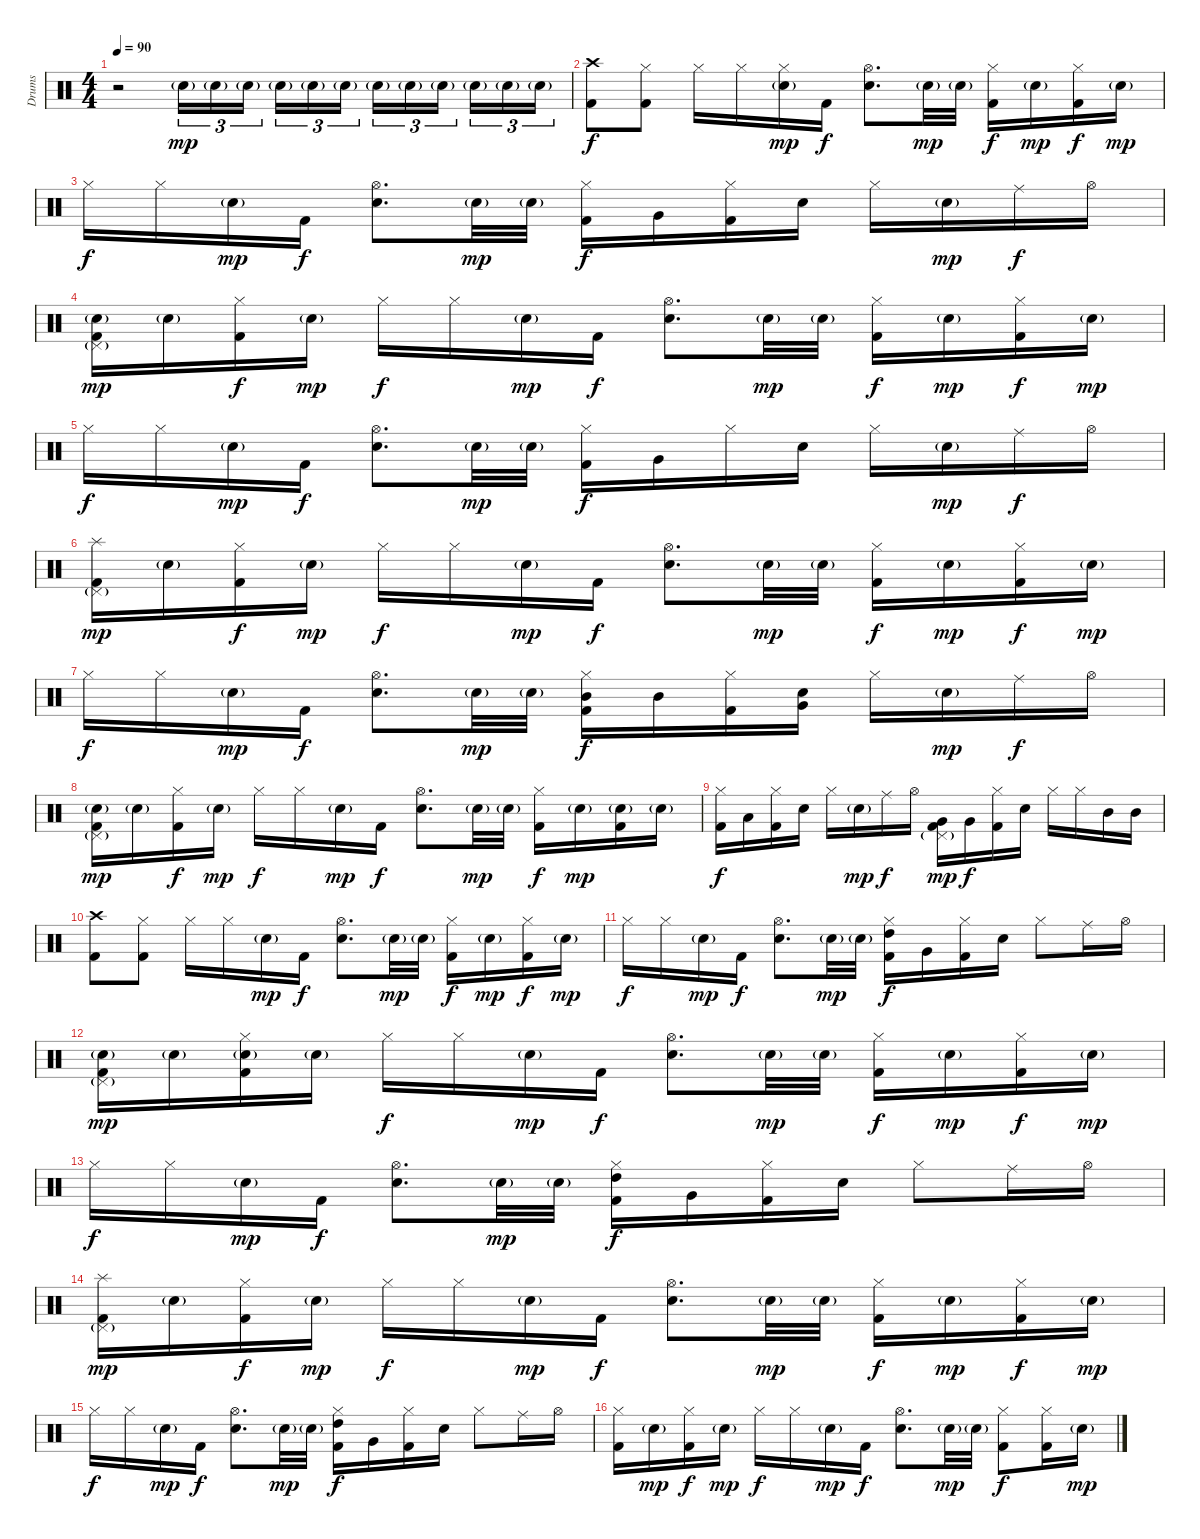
\track ("Drums" "Drums") {instrument percussion}
\staff {score}
\articulation defaults
\ts (4 4)
\tempo 90
\clef neutral
\ks c
r.2{dy f volume 0} "Electric Snare (hit)"{g}.16{tu (3 2) dy mp volume 10} "Electric Snare (hit)"{g}.16{tu (3 2)} "Electric Snare (hit)"{g}.16{tu (3 2) beam splitsecondary} "Electric Snare (hit)"{g}.16{tu (3 2)} "Electric Snare (hit)"{g}.16{tu (3 2)} "Electric Snare (hit)"{g}.16{tu (3 2)} "Electric Snare (hit)"{g}.16{tu (3 2)} "Electric Snare (hit)"{g}.16{tu (3 2)} "Electric Snare (hit)"{g}.16{tu (3 2) beam splitsecondary} "Electric Snare (hit)"{g}.16{tu (3 2)} "Electric Snare (hit)"{g}.16{tu (3 2)} "Electric Snare (hit)"{g}.16{tu (3 2)} |
("Crash high (hit)" "Kick (hit) 2").8{dy f} ("Hi-Hat (closed)" "Kick (hit) 2").8 "Hi-Hat (closed)".16 "Hi-Hat (closed)".16 ("Hi-Hat (closed)" "Electric Snare (hit)"{g}).16{dy mp} "Kick (hit) 2".16{dy f} ("Electric Snare (hit)" "Hi-Hat (open)").8{d} "Electric Snare (hit)"{g}.32{dy mp} "Electric Snare (hit)"{g}.32 ("Hi-Hat (closed)" "Kick (hit) 2").16{dy f} "Electric Snare (hit)"{g}.16{dy mp} ("Hi-Hat (closed)" "Kick (hit) 2").16{dy f} "Electric Snare (hit)"{g}.16{dy mp} |
"Hi-Hat (closed)".16{dy f} "Hi-Hat (closed)".16 "Electric Snare (hit)"{g}.16{dy mp} "Kick (hit) 2".16{dy f} ("Hi-Hat (open)" "Electric Snare (hit)").8{d} "Electric Snare (hit)"{g}.32{dy mp} "Electric Snare (hit)"{g}.32 ("Hi-Hat (closed)" "Kick (hit) 2").16{dy f} "Very Low Tom (hit)".16 ("Hi-Hat (closed)" "Kick (hit) 2").16 "Electric Snare (hit)".16 "Hi-Hat (closed)".16 "Electric Snare (hit)"{g}.16{dy mp} "Ride (middle)".16{dy f} "Hi-Hat (open)".16 |
("Pedal Hi-Hat (hit)"{g} "Electric Snare (hit)"{g} "Kick (hit) 2").16{dy mp} "Electric Snare (hit)"{g}.16 ("Hi-Hat (closed)" "Kick (hit) 2").16{dy f} "Electric Snare (hit)"{g}.16{dy mp} "Hi-Hat (closed)".16{dy f} "Hi-Hat (closed)".16 "Electric Snare (hit)"{g}.16{dy mp} "Kick (hit) 2".16{dy f} ("Electric Snare (hit)" "Hi-Hat (open)").8{d} "Electric Snare (hit)"{g}.32{dy mp} "Electric Snare (hit)"{g}.32 ("Hi-Hat (closed)" "Kick (hit) 2").16{dy f} "Electric Snare (hit)"{g}.16{dy mp} ("Hi-Hat (closed)" "Kick (hit) 2").16{dy f} "Electric Snare (hit)"{g}.16{dy mp} |
"Hi-Hat (closed)".16{dy f} "Hi-Hat (closed)".16 "Electric Snare (hit)"{g}.16{dy mp} "Kick (hit) 2".16{dy f} ("Hi-Hat (open)" "Electric Snare (hit)").8{d} "Electric Snare (hit)"{g}.32{dy mp} "Electric Snare (hit)"{g}.32 ("Hi-Hat (closed)" "Kick (hit) 2").16{dy f} "Very Low Tom (hit)".16 "Hi-Hat (closed)".16 "Electric Snare (hit)".16 "Hi-Hat (closed)".16 "Electric Snare (hit)"{g}.16{dy mp} "Ride (middle)".16{dy f} "Hi-Hat (open)".16 |
("Splash (hit)" "Pedal Hi-Hat (hit)"{g} "Kick (hit) 2").16{dy mp} "Electric Snare (hit)"{g}.16 ("Hi-Hat (closed)" "Kick (hit) 2").16{dy f} "Electric Snare (hit)"{g}.16{dy mp} "Hi-Hat (closed)".16{dy f} "Hi-Hat (closed)".16 "Electric Snare (hit)"{g}.16{dy mp} "Kick (hit) 2".16{dy f} ("Hi-Hat (open)" "Electric Snare (hit)").8{d} "Electric Snare (hit)"{g}.32{dy mp} "Electric Snare (hit)"{g}.32 ("Hi-Hat (closed)" "Kick (hit) 2").16{dy f} "Electric Snare (hit)"{g}.16{dy mp} ("Hi-Hat (closed)" "Kick (hit) 2").16{dy f} "Electric Snare (hit)"{g}.16{dy mp} |
"Hi-Hat (closed)".16{dy f} "Hi-Hat (closed)".16 "Electric Snare (hit)"{g}.16{dy mp} "Kick (hit) 2".16{dy f} ("Hi-Hat (open)" "Electric Snare (hit)").8{d} "Electric Snare (hit)"{g}.32{dy mp} "Electric Snare (hit)"{g}.32 ("Hi-Hat (closed)" "Mid Tom (hit)" "Kick (hit) 2").16{dy f} "Mid Tom (hit)".16 ("Hi-Hat (closed)" "Kick (hit) 2").16 ("Electric Snare (hit)" "Very Low Tom (hit)").16 "Hi-Hat (closed)".16 "Electric Snare (hit)"{g}.16{dy mp} "Ride (middle)".16{dy f} "Hi-Hat (open)".16 |
("Electric Snare (hit)"{g} "Pedal Hi-Hat (hit)"{g} "Kick (hit) 2").16{dy mp} "Electric Snare (hit)"{g}.16 ("Hi-Hat (closed)" "Kick (hit) 2").16{dy f} "Electric Snare (hit)"{g}.16{dy mp} "Hi-Hat (closed)".16{dy f} "Hi-Hat (closed)".16 "Electric Snare (hit)"{g}.16{dy mp} "Kick (hit) 2".16{dy f} ("Hi-Hat (open)" "Electric Snare (hit)").8{d} "Electric Snare (hit)"{g}.32{dy mp} "Electric Snare (hit)"{g}.32 ("Hi-Hat (closed)" "Kick (hit) 2").16{dy f} "Electric Snare (hit)"{g}.16{dy mp} ("Electric Snare (hit)"{g} "Kick (hit) 2").16 "Electric Snare (hit)"{g}.16 |
("Hi-Hat (closed)" "Kick (hit) 2").16{dy f} "Low Tom (hit)".16 ("Hi-Hat (closed)" "Kick (hit) 2").16 "Electric Snare (hit)".16 "Hi-Hat (closed)".16 "Electric Snare (hit)"{g}.16{dy mp} "Ride (middle)".16{dy f} "Hi-Hat (open)".16 ("Pedal Hi-Hat (hit)"{g} "Very Low Tom (hit)" "Kick (hit) 2").16{dy mp} "Very Low Tom (hit)".16{dy f} ("Hi-Hat (closed)" "Kick (hit) 2").16 "Electric Snare (hit)".16 "Hi-Hat (closed)".16 "Hi-Hat (closed)".16 "Mid Tom (hit)".16 "Mid Tom (hit)".16 |
("Crash high (hit)" "Kick (hit) 2").8 ("Hi-Hat (closed)" "Kick (hit) 2").8 "Hi-Hat (closed)".16 "Hi-Hat (closed)".16 "Electric Snare (hit)"{g}.16{dy mp} "Kick (hit) 2".16{dy f} ("Electric Snare (hit)" "Hi-Hat (open)").8{d} "Electric Snare (hit)"{g}.32{dy mp} "Electric Snare (hit)"{g}.32 ("Hi-Hat (closed)" "Kick (hit) 2").16{dy f} "Electric Snare (hit)"{g}.16{dy mp} ("Hi-Hat (closed)" "Kick (hit) 2").16{dy f} "Electric Snare (hit)"{g}.16{dy mp} |
"Hi-Hat (closed)".16{dy f} "Hi-Hat (closed)".16 "Electric Snare (hit)"{g}.16{dy mp} "Kick (hit) 2".16{dy f} ("Hi-Hat (open)" "Electric Snare (hit)").8{d} "Electric Snare (hit)"{g}.32{dy mp} "Electric Snare (hit)"{g}.32 ("Kick (hit) 2" "Hi-Hat (closed)" "High Tom (hit)").16{dy f} "Very Low Tom (hit)".16 ("Hi-Hat (closed)" "Kick (hit) 2").16 "Electric Snare (hit)".16 "Hi-Hat (closed)".8 "Ride (middle)".16 "Hi-Hat (open)".16 |
("Electric Snare (hit)"{g} "Pedal Hi-Hat (hit)"{g} "Kick (hit) 2").16{dy mp} "Electric Snare (hit)"{g}.16 ("Electric Snare (hit)"{g} "Kick (hit) 2" "Hi-Hat (closed)").16 "Electric Snare (hit)"{g}.16 "Hi-Hat (closed)".16{dy f} "Hi-Hat (closed)".16 "Electric Snare (hit)"{g}.16{dy mp} "Kick (hit) 2".16{dy f} ("Electric Snare (hit)" "Hi-Hat (open)").8{d} "Electric Snare (hit)"{g}.32{dy mp} "Electric Snare (hit)"{g}.32 ("Hi-Hat (closed)" "Kick (hit) 2").16{dy f} "Electric Snare (hit)"{g}.16{dy mp} ("Hi-Hat (closed)" "Kick (hit) 2").16{dy f} "Electric Snare (hit)"{g}.16{dy mp} |
"Hi-Hat (closed)".16{dy f} "Hi-Hat (closed)".16 "Electric Snare (hit)"{g}.16{dy mp} "Kick (hit) 2".16{dy f} ("Electric Snare (hit)" "Hi-Hat (open)").8{d} "Electric Snare (hit)"{g}.32{dy mp} "Electric Snare (hit)"{g}.32 ("Kick (hit) 2" "Hi-Hat (closed)" "High Tom (hit)").16{dy f} "Very Low Tom (hit)".16 ("Hi-Hat (closed)" "Kick (hit) 2").16 "Electric Snare (hit)".16 "Hi-Hat (closed)".8 "Ride (middle)".16 "Hi-Hat (open)".16 |
("Splash (hit)" "Pedal Hi-Hat (hit)"{g} "Kick (hit) 2").16{dy mp} "Electric Snare (hit)"{g}.16 ("Kick (hit) 2" "Hi-Hat (closed)").16{dy f} "Electric Snare (hit)"{g}.16{dy mp} "Hi-Hat (closed)".16{dy f} "Hi-Hat (closed)".16 "Electric Snare (hit)"{g}.16{dy mp} "Kick (hit) 2".16{dy f} ("Electric Snare (hit)" "Hi-Hat (open)").8{d} "Electric Snare (hit)"{g}.32{dy mp} "Electric Snare (hit)"{g}.32 ("Hi-Hat (closed)" "Kick (hit) 2").16{dy f} "Electric Snare (hit)"{g}.16{dy mp} ("Hi-Hat (closed)" "Kick (hit) 2").16{dy f} "Electric Snare (hit)"{g}.16{dy mp} |
"Hi-Hat (closed)".16{dy f} "Hi-Hat (closed)".16 "Electric Snare (hit)"{g}.16{dy mp} "Kick (hit) 2".16{dy f} ("Electric Snare (hit)" "Hi-Hat (open)").8{d} "Electric Snare (hit)"{g}.32{dy mp} "Electric Snare (hit)"{g}.32 ("Kick (hit) 2" "Hi-Hat (closed)" "High Tom (hit)").16{dy f} "Very Low Tom (hit)".16 ("Hi-Hat (closed)" "Kick (hit) 2").16 "Electric Snare (hit)".16 "Hi-Hat (closed)".8 "Ride (middle)".16 "Hi-Hat (open)".16 |
("Hi-Hat (closed)" "Kick (hit) 2").16 "Electric Snare (hit)"{g}.16{dy mp} ("Kick (hit) 2" "Hi-Hat (closed)").16{dy f} "Electric Snare (hit)"{g}.16{dy mp} "Hi-Hat (closed)".16{dy f} "Hi-Hat (closed)".16 "Electric Snare (hit)"{g}.16{dy mp} "Kick (hit) 2".16{dy f} ("Electric Snare (hit)" "Hi-Hat (open)").8{d} "Electric Snare (hit)"{g}.32{dy mp} "Electric Snare (hit)"{g}.32 ("Hi-Hat (closed)" "Kick (hit) 2").8{dy f} ("Hi-Hat (closed)" "Kick (hit) 2").16 "Electric Snare (hit)"{g}.16{dy mp}
